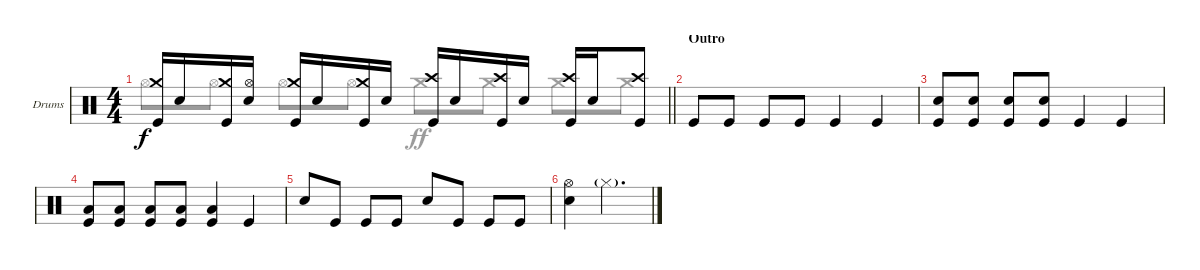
\bracketExtendMode groupsimilarinstruments
\firstSystemTrackNameOrientation horizontal
\otherSystemsTrackNameOrientation horizontal
\track ("Drumkit" "Drums") {instrument percussion}
\staff {score}
\articulation defaults
\voice
\ts (4 4)
\tempo (94 hide)
\tempo (193 1 hide)
\clef neutral
\barLineRight lightlight
\ks c
("Crash medium (hit)" "Kick (hit)").16{dy f} "Snare (hit) 2".16 ("Crash medium (hit)" "Kick (hit)").16 ("Hi-Hat (open)" "Snare (hit) 2").16 ("Crash medium (hit)" "Kick (hit)").16 "Snare (hit) 2".16 ("Crash medium (hit)" "Kick (hit)").16 "Snare (hit) 2".16 ("Crash high (hit)" "Kick (hit)").16 "Snare (hit) 2".16 ("Crash high (hit)" "Kick (hit)").16 "Snare (hit) 2".16 ("Crash high (hit)" "Kick (hit)").16 "Snare (hit) 2".16 ("Crash high (hit)" "Kick (hit)").8 |
\section ("" "Outro")
\tempo (193 hide)
"Kick (hit)".8 "Kick (hit)".8 "Kick (hit)".8 "Kick (hit)".8 "Kick (hit)".4 "Kick (hit)".4 |
("Snare (hit) 2" "Kick (hit)").8 ("Snare (hit) 2" "Kick (hit)").8 ("Snare (hit) 2" "Kick (hit)").8 ("Snare (hit) 2" "Kick (hit)").8 "Kick (hit)".4 "Kick (hit)".4 |
("Low Tom (hit)" "Kick (hit)").8 ("Low Tom (hit)" "Kick (hit)").8 ("Low Tom (hit)" "Kick (hit)").8 ("Low Tom (hit)" "Kick (hit)").8 ("Low Tom (hit)" "Kick (hit)").4 "Kick (hit)".4 |
"Snare (hit) 2".8 "Kick (hit)".8 "Kick (hit)".8 "Kick (hit)".8 "Snare (hit) 2".8 "Kick (hit)".8 "Kick (hit)".8 "Kick (hit)".8 |
("Hi-Hat (open)" "Snare (hit) 2").4 "Hi-Hat (closed)"{g}.2{d}
\voice
\clef neutral
\ottava regular
\simile none
\barLineRight lightlight
\ks c "Hi-Hat (open)".8{dy f} "Hi-Hat (open)".8 "Hi-Hat (open)".8 "Hi-Hat (open)".8 "Crash medium (hit)".8{dy ff} "Crash medium (hit)".8 "Crash medium (hit)".8 "Crash medium (hit)".8
|
|
|
|
|
